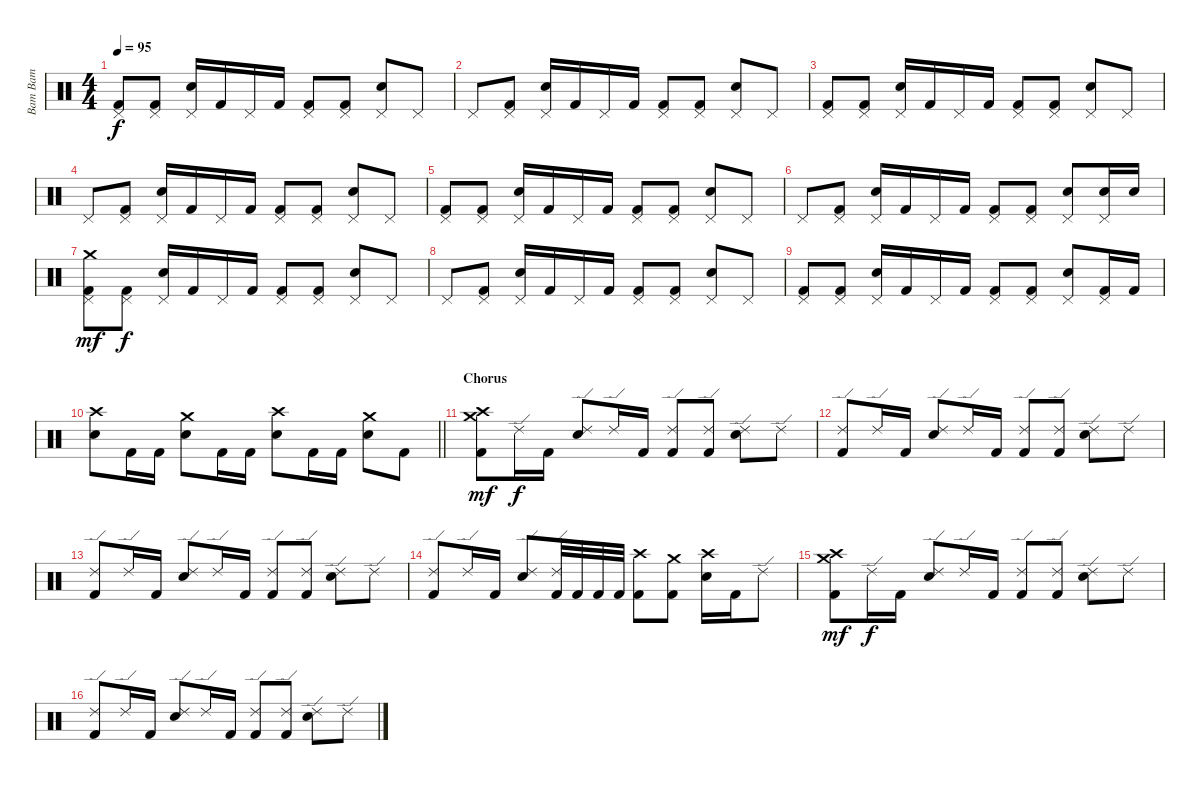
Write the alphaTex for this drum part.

\track ("Bam Bam" "Bam Bam") {instrument percussion}
\staff {score}
\articulation defaults
\ts (4 4)
\tempo 95
\clef neutral
\ks c
("Pedal Hi-Hat (hit)" "Kick (hit) 2").8{dy f} ("Pedal Hi-Hat (hit)" "Kick (hit) 2").8 ("Pedal Hi-Hat (hit)" "Electric Snare (hit)").16 "Kick (hit) 2".16 "Pedal Hi-Hat (hit)".16 "Kick (hit) 2".16 ("Pedal Hi-Hat (hit)" "Kick (hit) 2").8 ("Pedal Hi-Hat (hit)" "Kick (hit) 2").8 ("Pedal Hi-Hat (hit)" "Electric Snare (hit)").8 "Pedal Hi-Hat (hit)".8 |
"Pedal Hi-Hat (hit)".8 ("Pedal Hi-Hat (hit)" "Kick (hit) 2").8 ("Pedal Hi-Hat (hit)" "Electric Snare (hit)").16 "Kick (hit) 2".16 "Pedal Hi-Hat (hit)".16 "Kick (hit) 2".16 ("Pedal Hi-Hat (hit)" "Kick (hit) 2").8 ("Pedal Hi-Hat (hit)" "Kick (hit) 2").8 ("Pedal Hi-Hat (hit)" "Electric Snare (hit)").8 "Pedal Hi-Hat (hit)".8 |
("Pedal Hi-Hat (hit)" "Kick (hit) 2").8 ("Pedal Hi-Hat (hit)" "Kick (hit) 2").8 ("Pedal Hi-Hat (hit)" "Electric Snare (hit)").16 "Kick (hit) 2".16 "Pedal Hi-Hat (hit)".16 "Kick (hit) 2".16 ("Pedal Hi-Hat (hit)" "Kick (hit) 2").8 ("Pedal Hi-Hat (hit)" "Kick (hit) 2").8 ("Pedal Hi-Hat (hit)" "Electric Snare (hit)").8 "Pedal Hi-Hat (hit)".8 |
"Pedal Hi-Hat (hit)".8 ("Pedal Hi-Hat (hit)" "Kick (hit) 2").8 ("Pedal Hi-Hat (hit)" "Electric Snare (hit)").16 "Kick (hit) 2".16 "Pedal Hi-Hat (hit)".16 "Kick (hit) 2".16 ("Pedal Hi-Hat (hit)" "Kick (hit) 2").8 ("Pedal Hi-Hat (hit)" "Kick (hit) 2").8 ("Pedal Hi-Hat (hit)" "Electric Snare (hit)").8 "Pedal Hi-Hat (hit)".8 |
("Pedal Hi-Hat (hit)" "Kick (hit) 2").8 ("Pedal Hi-Hat (hit)" "Kick (hit) 2").8 ("Pedal Hi-Hat (hit)" "Electric Snare (hit)").16 "Kick (hit) 2".16 "Pedal Hi-Hat (hit)".16 "Kick (hit) 2".16 ("Pedal Hi-Hat (hit)" "Kick (hit) 2").8 ("Pedal Hi-Hat (hit)" "Kick (hit) 2").8 ("Pedal Hi-Hat (hit)" "Electric Snare (hit)").8 "Pedal Hi-Hat (hit)".8 |
"Pedal Hi-Hat (hit)".8 ("Pedal Hi-Hat (hit)" "Kick (hit) 2").8 ("Pedal Hi-Hat (hit)" "Electric Snare (hit)").16 "Kick (hit) 2".16 "Pedal Hi-Hat (hit)".16 "Kick (hit) 2".16 ("Pedal Hi-Hat (hit)" "Kick (hit) 2").8 ("Pedal Hi-Hat (hit)" "Kick (hit) 2").8 ("Pedal Hi-Hat (hit)" "Electric Snare (hit)").8 ("Pedal Hi-Hat (hit)" "Electric Snare (hit)").16 "Electric Snare (hit)".16 |
("Crash medium (hit)" "Pedal Hi-Hat (hit)" "Kick (hit) 2").8{dy mf} ("Pedal Hi-Hat (hit)" "Kick (hit) 2").8{dy f} ("Pedal Hi-Hat (hit)" "Electric Snare (hit)").16 "Kick (hit) 2".16 "Pedal Hi-Hat (hit)".16 "Kick (hit) 2".16 ("Pedal Hi-Hat (hit)" "Kick (hit) 2").8 ("Pedal Hi-Hat (hit)" "Kick (hit) 2").8 ("Pedal Hi-Hat (hit)" "Electric Snare (hit)").8 "Pedal Hi-Hat (hit)".8 |
"Pedal Hi-Hat (hit)".8 ("Pedal Hi-Hat (hit)" "Kick (hit) 2").8 ("Pedal Hi-Hat (hit)" "Electric Snare (hit)").16 "Kick (hit) 2".16 "Pedal Hi-Hat (hit)".16 "Kick (hit) 2".16 ("Pedal Hi-Hat (hit)" "Kick (hit) 2").8 ("Pedal Hi-Hat (hit)" "Kick (hit) 2").8 ("Pedal Hi-Hat (hit)" "Electric Snare (hit)").8 "Pedal Hi-Hat (hit)".8 |
("Pedal Hi-Hat (hit)" "Kick (hit) 2").8 ("Pedal Hi-Hat (hit)" "Kick (hit) 2").8 ("Pedal Hi-Hat (hit)" "Electric Snare (hit)").16 "Kick (hit) 2".16 "Pedal Hi-Hat (hit)".16 "Kick (hit) 2".16 ("Pedal Hi-Hat (hit)" "Kick (hit) 2").8 ("Pedal Hi-Hat (hit)" "Kick (hit) 2").8 ("Pedal Hi-Hat (hit)" "Electric Snare (hit)").8 ("Pedal Hi-Hat (hit)" "Kick (hit) 2").16 "Kick (hit) 2".16 |
\barLineRight lightlight
("Crash high (hit)" "Electric Snare (hit)").8 "Kick (hit) 2".16 "Kick (hit) 2".16 ("Crash medium (hit)" "Electric Snare (hit)").8 "Kick (hit) 2".16 "Kick (hit) 2".16 ("Crash high (hit)" "Electric Snare (hit)").8 "Kick (hit) 2".16 "Kick (hit) 2".16 ("Crash medium (hit)" "Electric Snare (hit)").8 "Kick (hit) 2".8 |
\section ("" "Chorus")
("Crash medium (hit)" "Crash high (hit)" "Kick (hit) 2").8{dy mf} "Ride (edge) 2".16{dy f} "Kick (hit) 2".16 ("Ride (edge) 2" "Electric Snare (hit)").8 "Ride (edge) 2".16 "Kick (hit) 2".16 ("Ride (edge) 2" "Kick (hit) 2").8 ("Ride (edge) 2" "Kick (hit) 2").8 ("Ride (edge) 2" "Electric Snare (hit)").8 "Ride (edge) 2".8 |
("Ride (edge) 2" "Kick (hit) 2").8 "Ride (edge) 2".16 "Kick (hit) 2".16 ("Ride (edge) 2" "Electric Snare (hit)").8 "Ride (edge) 2".16 "Kick (hit) 2".16 ("Ride (edge) 2" "Kick (hit) 2").8 ("Ride (edge) 2" "Kick (hit) 2").8 ("Ride (edge) 2" "Electric Snare (hit)").8 "Ride (edge) 2".8 |
("Ride (edge) 2" "Kick (hit) 2").8 "Ride (edge) 2".16 "Kick (hit) 2".16 ("Ride (edge) 2" "Electric Snare (hit)").8 "Ride (edge) 2".16 "Kick (hit) 2".16 ("Ride (edge) 2" "Kick (hit) 2").8 ("Ride (edge) 2" "Kick (hit) 2").8 ("Ride (edge) 2" "Electric Snare (hit)").8 "Ride (edge) 2".8 |
("Ride (edge) 2" "Kick (hit) 2").8 "Ride (edge) 2".16 "Kick (hit) 2".16 ("Ride (edge) 2" "Electric Snare (hit)").8 ("Ride (edge) 2" "Kick (hit) 2").32 "Kick (hit) 2".32 "Kick (hit) 2".32 "Kick (hit) 2".32 ("Crash high (hit)" "Kick (hit) 2").8 ("Crash medium (hit)" "Kick (hit) 2").8 ("Crash high (hit)" "Electric Snare (hit)").16 "Kick (hit) 2".16 "Ride (edge) 2".8 |
("Crash medium (hit)" "Crash high (hit)" "Kick (hit) 2").8{dy mf} "Ride (edge) 2".16{dy f} "Kick (hit) 2".16 ("Ride (edge) 2" "Electric Snare (hit)").8 "Ride (edge) 2".16 "Kick (hit) 2".16 ("Ride (edge) 2" "Kick (hit) 2").8 ("Ride (edge) 2" "Kick (hit) 2").8 ("Ride (edge) 2" "Electric Snare (hit)").8 "Ride (edge) 2".8 |
("Ride (edge) 2" "Kick (hit) 2").8 "Ride (edge) 2".16 "Kick (hit) 2".16 ("Ride (edge) 2" "Electric Snare (hit)").8 "Ride (edge) 2".16 "Kick (hit) 2".16 ("Ride (edge) 2" "Kick (hit) 2").8 ("Ride (edge) 2" "Kick (hit) 2").8 ("Ride (edge) 2" "Electric Snare (hit)").8 "Ride (edge) 2".8
